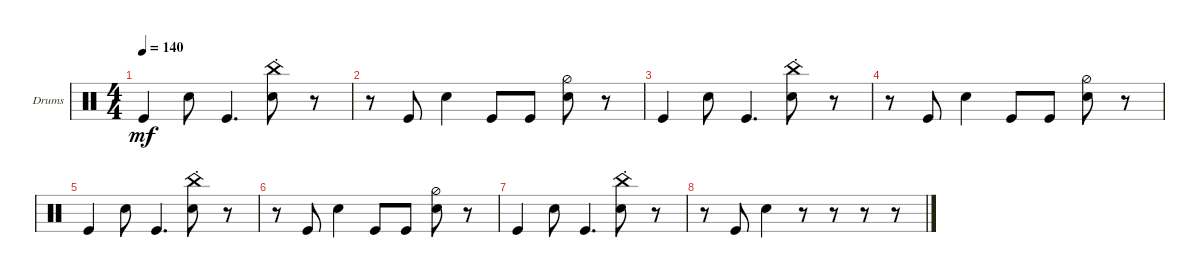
\defaultSystemsLayout 4
\bracketExtendMode groupsimilarinstruments
\firstSystemTrackNameOrientation horizontal
\otherSystemsTrackNameOrientation horizontal
\track ("Drumkit" "Drums") {instrument percussion}
\staff {score}
\articulation defaults
\ts (4 4)
\tempo 140
\clef neutral
\ks c "Kick (hit)".4{dy mf} "Snare (hit) 2".8 "Kick (hit)".4{d}
("Snare (hit) 2" "China (hit)"{st}).8 r.8 |
r.8 "Kick (hit)".8 "Snare (hit) 2".4 "Kick (hit)".8 "Kick (hit)".8 ("Snare (hit) 2" "Hi-Hat (half)").8 r.8 |
"Kick (hit)".4 "Snare (hit) 2".8 "Kick (hit)".4{d} ("Snare (hit) 2" "China (hit)"{st}).8 r.8 |
r.8 "Kick (hit)".8 "Snare (hit) 2".4 "Kick (hit)".8 "Kick (hit)".8 ("Snare (hit) 2" "Hi-Hat (half)").8 r.8 |
"Kick (hit)".4 "Snare (hit) 2".8 "Kick (hit)".4{d} ("Snare (hit) 2" "China (hit)"{st}).8 r.8 |
r.8 "Kick (hit)".8 "Snare (hit) 2".4 "Kick (hit)".8 "Kick (hit)".8 ("Snare (hit) 2" "Hi-Hat (half)").8 r.8 |
"Kick (hit)".4 "Snare (hit) 2".8 "Kick (hit)".4{d} ("Snare (hit) 2" "China (hit)"{st}).8 r.8 |
r.8 "Kick (hit)".8 "Snare (hit) 2".4 r.8 r.8 r.8 r.8
